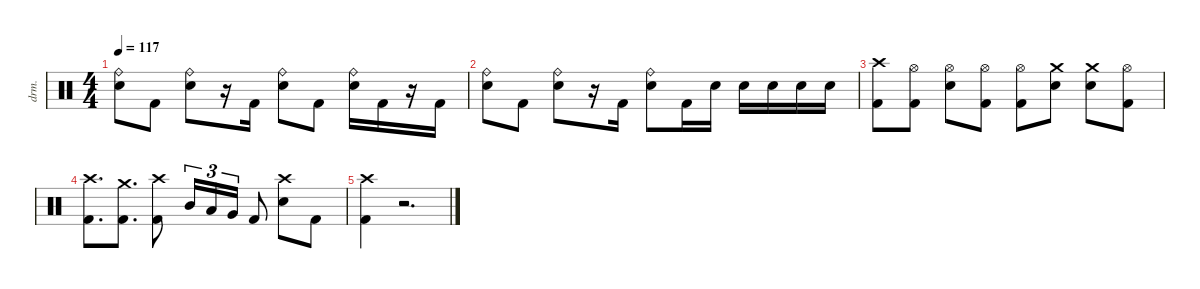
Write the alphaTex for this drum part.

\defaultSystemsLayout 4
\hideDynamics
\bracketExtendMode nobrackets
\otherSystemsTrackNameOrientation horizontal
\track ("Drums" "drm.") {instrument percussion}
\staff {score}
\articulation defaults
\ts (4 4)
\tempo 117
\clef neutral
\ks c
("Snare (hit) 2" "Ride (bell)").8{dy f} "Kick (hit) 2".8 ("Snare (hit) 2" "Ride (bell)").8 r.16 "Kick (hit) 2".16 ("Snare (hit) 2" "Ride (bell)").8 "Kick (hit) 2".8 ("Snare (hit) 2" "Ride (bell)").16 "Kick (hit) 2".16 r.16 "Kick (hit) 2".16 |
("Snare (hit) 2" "Ride (bell)").8 "Kick (hit) 2".8 ("Snare (hit) 2" "Ride (bell)").8 r.16 "Kick (hit) 2".16 ("Snare (hit) 2" "Ride (bell)").8 "Kick (hit) 2".16 "Snare (hit) 2".16 "Snare (hit) 2".16 "Snare (hit) 2".16 "Snare (hit) 2".16 "Snare (hit) 2".16 |
("Kick (hit) 2" "Crash high (hit)").8 ("Kick (hit) 2" "Hi-Hat (open)").8 ("Snare (hit) 2" "Hi-Hat (open)").8 ("Kick (hit) 2" "Hi-Hat (open)").8 ("Kick (hit) 2" "Hi-Hat (open)").8 ("Snare (hit) 2" "Crash medium (hit)").8 ("Snare (hit) 2" "Crash medium (hit)").8 ("Kick (hit) 2" "Hi-Hat (open)").8 |
("Kick (hit) 2" "Crash high (hit)").8{d} ("Kick (hit) 2" "Crash medium (hit)").8{d} ("Kick (hit) 2" "Crash high (hit)").8 "Mid Tom (hit)".16{tu (3 2)} "Low Tom (hit)".16{tu (3 2)} "Very Low Tom (hit)".16{tu (3 2)} "Kick (hit) 2".8 ("Snare (hit) 2" "Crash high (hit)").8 "Kick (hit) 2".8 |
("Kick (hit) 2" "Crash high (hit)").4 r.2{d}
